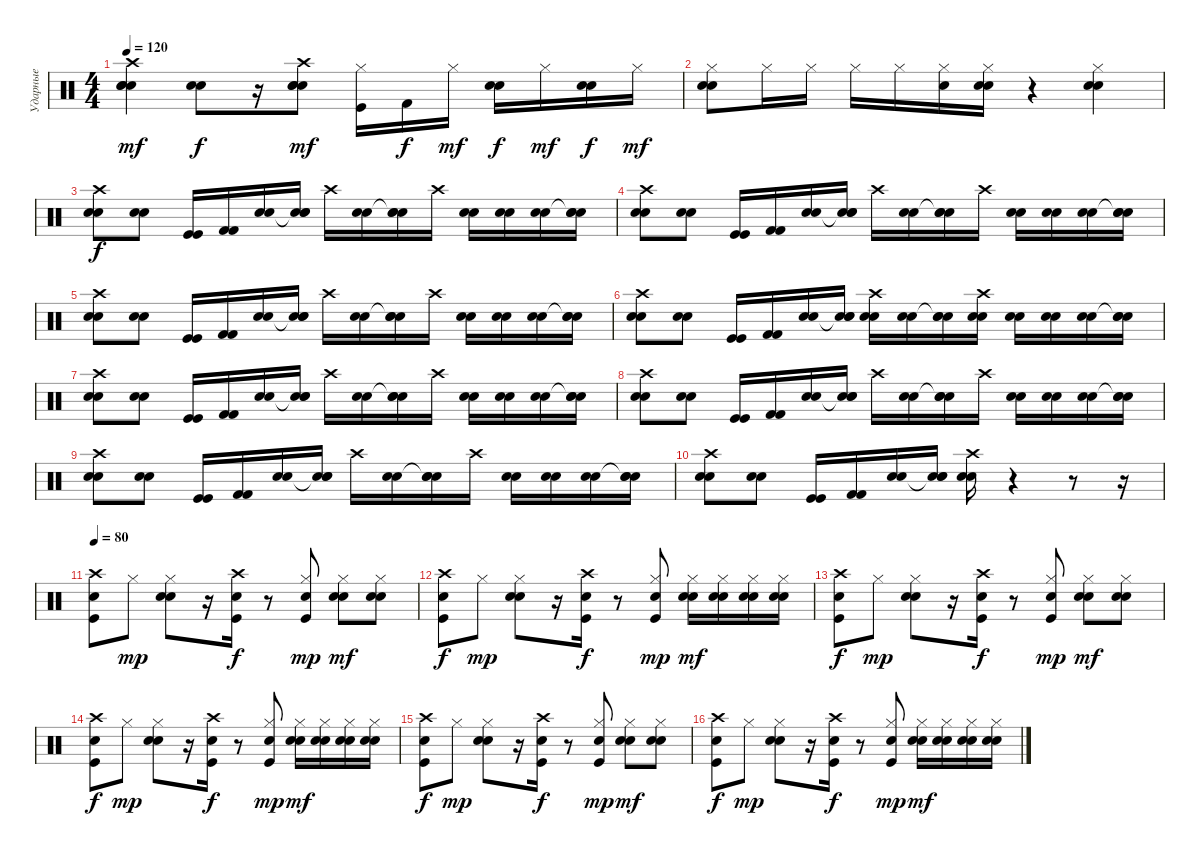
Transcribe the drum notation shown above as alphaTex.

\track ("Ударные" "Ударные") {instrument percussion}
\staff {score}
\articulation defaults
\ts (4 4)
\tempo 120
\clef neutral
\ks c
("Crash high (hit)" "Electric Snare (hit)" "Electric Snare (hit)" "Snare (hit) 2").4{dy mf} ("Electric Snare (hit)" "Electric Snare (hit)").8{dy f} r.16 ("Crash high (hit)" "Electric Snare (hit)" "Electric Snare (hit)" "Snare (hit) 2").8{dy mf} ("Hi-Hat (closed)" "Kick (hit)").16 "Kick (hit) 2".16{dy f} "Hi-Hat (closed)".16{dy mf} ("Electric Snare (hit)" "Electric Snare (hit)").16{dy f} "Hi-Hat (closed)".16{dy mf} ("Electric Snare (hit)" "Electric Snare (hit)").16{dy f} "Hi-Hat (closed)".16{dy mf} |
("Hi-Hat (closed)" "Electric Snare (hit)" "Electric Snare (hit)").8 "Hi-Hat (closed)".16 "Hi-Hat (closed)".16 "Hi-Hat (closed)".16 "Hi-Hat (closed)".16 ("Hi-Hat (closed)" "Electric Snare (hit)").16 ("Hi-Hat (closed)" "Electric Snare (hit)" "Electric Snare (hit)").16 r.4 ("Hi-Hat (closed)" "Electric Snare (hit)" "Electric Snare (hit)").4 |
("Crash high (hit)" "Electric Snare (hit)" "Electric Snare (hit)").8{dy f} ("Electric Snare (hit)" "Electric Snare (hit)").8 ("Kick (hit)" "Kick (hit)").16 ("Kick (hit) 2" "Kick (hit) 2").16 ("Electric Snare (hit)" "Electric Snare (hit)").16 ("Snare (hit)"{t} "Electric Snare (hit)" "Electric Snare (hit)").16 "Crash high (hit)".16 ("Electric Snare (hit)" "Electric Snare (hit)").16 ("Snare (hit)"{t} "Electric Snare (hit)" "Electric Snare (hit)").16 "Crash high (hit)".16 ("Electric Snare (hit)" "Electric Snare (hit)").16 ("Electric Snare (hit)" "Electric Snare (hit)").16 ("Electric Snare (hit)" "Electric Snare (hit)").16 ("Snare (hit)"{t} "Electric Snare (hit)" "Electric Snare (hit)").16 |
("Crash high (hit)" "Electric Snare (hit)" "Electric Snare (hit)").8 ("Electric Snare (hit)" "Electric Snare (hit)").8 ("Kick (hit)" "Kick (hit)").16 ("Kick (hit) 2" "Kick (hit) 2").16 ("Electric Snare (hit)" "Electric Snare (hit)").16 ("Snare (hit)"{t} "Electric Snare (hit)" "Electric Snare (hit)").16 "Crash high (hit)".16 ("Electric Snare (hit)" "Electric Snare (hit)").16 ("Snare (hit)"{t} "Electric Snare (hit)" "Electric Snare (hit)").16 "Crash high (hit)".16 ("Electric Snare (hit)" "Electric Snare (hit)").16 ("Electric Snare (hit)" "Electric Snare (hit)").16 ("Electric Snare (hit)" "Electric Snare (hit)").16 ("Snare (hit)"{t} "Electric Snare (hit)" "Electric Snare (hit)").16 |
("Crash high (hit)" "Electric Snare (hit)" "Electric Snare (hit)").8 ("Electric Snare (hit)" "Electric Snare (hit)").8 ("Kick (hit)" "Kick (hit)").16 ("Kick (hit) 2" "Kick (hit) 2").16 ("Electric Snare (hit)" "Electric Snare (hit)").16 ("Snare (hit)"{t} "Electric Snare (hit)" "Electric Snare (hit)").16 "Crash high (hit)".16 ("Electric Snare (hit)" "Electric Snare (hit)").16 ("Snare (hit)"{t} "Electric Snare (hit)" "Electric Snare (hit)").16 "Crash high (hit)".16 ("Electric Snare (hit)" "Electric Snare (hit)").16 ("Electric Snare (hit)" "Electric Snare (hit)").16 ("Electric Snare (hit)" "Electric Snare (hit)").16 ("Snare (hit)"{t} "Electric Snare (hit)" "Electric Snare (hit)").16 |
("Crash high (hit)" "Electric Snare (hit)" "Electric Snare (hit)").8 ("Electric Snare (hit)" "Electric Snare (hit)").8 ("Kick (hit)" "Kick (hit)").16 ("Kick (hit) 2" "Kick (hit) 2").16 ("Electric Snare (hit)" "Electric Snare (hit)").16 ("Snare (hit)"{t} "Electric Snare (hit)" "Electric Snare (hit)").16 ("Crash high (hit)" "Electric Snare (hit)" "Electric Snare (hit)").16 ("Electric Snare (hit)" "Electric Snare (hit)").16 ("Snare (hit)"{t} "Electric Snare (hit)" "Electric Snare (hit)").16 ("Crash high (hit)" "Electric Snare (hit)" "Electric Snare (hit)").16 ("Electric Snare (hit)" "Electric Snare (hit)").16 ("Electric Snare (hit)" "Electric Snare (hit)").16 ("Electric Snare (hit)" "Electric Snare (hit)").16 ("Snare (hit)"{t} "Electric Snare (hit)" "Electric Snare (hit)").16 |
("Crash high (hit)" "Electric Snare (hit)" "Electric Snare (hit)").8 ("Electric Snare (hit)" "Electric Snare (hit)").8 ("Kick (hit)" "Kick (hit)").16 ("Kick (hit) 2" "Kick (hit) 2").16 ("Electric Snare (hit)" "Electric Snare (hit)").16 ("Snare (hit)"{t} "Electric Snare (hit)" "Electric Snare (hit)").16 "Crash high (hit)".16 ("Electric Snare (hit)" "Electric Snare (hit)").16 ("Snare (hit)"{t} "Electric Snare (hit)" "Electric Snare (hit)").16 "Crash high (hit)".16 ("Electric Snare (hit)" "Electric Snare (hit)").16 ("Electric Snare (hit)" "Electric Snare (hit)").16 ("Electric Snare (hit)" "Electric Snare (hit)").16 ("Snare (hit)"{t} "Electric Snare (hit)" "Electric Snare (hit)").16 |
("Crash high (hit)" "Electric Snare (hit)" "Electric Snare (hit)").8 ("Electric Snare (hit)" "Electric Snare (hit)").8 ("Kick (hit)" "Kick (hit)").16 ("Kick (hit) 2" "Kick (hit) 2").16 ("Electric Snare (hit)" "Electric Snare (hit)").16 ("Snare (hit)"{t} "Electric Snare (hit)" "Electric Snare (hit)").16 "Crash high (hit)".16 ("Electric Snare (hit)" "Electric Snare (hit)").16 ("Snare (hit)"{t} "Electric Snare (hit)" "Electric Snare (hit)").16 "Crash high (hit)".16 ("Electric Snare (hit)" "Electric Snare (hit)").16 ("Electric Snare (hit)" "Electric Snare (hit)").16 ("Electric Snare (hit)" "Electric Snare (hit)").16 ("Snare (hit)"{t} "Electric Snare (hit)" "Electric Snare (hit)").16 |
("Crash high (hit)" "Electric Snare (hit)" "Electric Snare (hit)").8 ("Electric Snare (hit)" "Electric Snare (hit)").8 ("Kick (hit)" "Kick (hit)").16 ("Kick (hit) 2" "Kick (hit) 2").16 ("Electric Snare (hit)" "Electric Snare (hit)").16 ("Snare (hit)"{t} "Electric Snare (hit)" "Electric Snare (hit)").16 "Crash high (hit)".16 ("Electric Snare (hit)" "Electric Snare (hit)").16 ("Snare (hit)"{t} "Electric Snare (hit)" "Electric Snare (hit)").16 "Crash high (hit)".16 ("Electric Snare (hit)" "Electric Snare (hit)").16 ("Electric Snare (hit)" "Electric Snare (hit)").16 ("Electric Snare (hit)" "Electric Snare (hit)").16 ("Snare (hit)"{t} "Electric Snare (hit)" "Electric Snare (hit)").16 |
("Crash high (hit)" "Electric Snare (hit)" "Electric Snare (hit)").8 ("Electric Snare (hit)" "Electric Snare (hit)").8 ("Kick (hit)" "Kick (hit)").16 ("Kick (hit) 2" "Kick (hit) 2").16 ("Electric Snare (hit)" "Electric Snare (hit)").16 ("Snare (hit)"{t} "Electric Snare (hit)" "Electric Snare (hit)").16 ("Crash high (hit)" "Electric Snare (hit)" "Electric Snare (hit)").16 r.4 r.8 r.16 |
\tempo 80
("Crash high (hit)" "Kick (hit)" "Snare (hit) 2").8 "Hi-Hat (closed)".8{dy mp} ("Hi-Hat (closed)" "Electric Snare (hit)" "Electric Snare (hit)").8 r.16 ("Crash high (hit)" "Kick (hit)" "Snare (hit) 2").16{dy f} r.8 ("Hi-Hat (closed)" "Kick (hit)" "Snare (hit) 2").8{dy mp} ("Hi-Hat (closed)" "Electric Snare (hit)" "Electric Snare (hit)").8{dy mf} ("Hi-Hat (closed)" "Electric Snare (hit)" "Electric Snare (hit)").8 |
("Crash high (hit)" "Kick (hit)" "Snare (hit) 2").8{dy f} "Hi-Hat (closed)".8{dy mp} ("Hi-Hat (closed)" "Electric Snare (hit)" "Electric Snare (hit)").8 r.16 ("Crash high (hit)" "Kick (hit)" "Snare (hit) 2").16{dy f} r.8 ("Hi-Hat (closed)" "Kick (hit)" "Snare (hit) 2").8{dy mp} ("Hi-Hat (closed)" "Electric Snare (hit)" "Electric Snare (hit)").16{dy mf} ("Hi-Hat (closed)" "Electric Snare (hit)" "Electric Snare (hit)").16 ("Hi-Hat (closed)" "Electric Snare (hit)" "Electric Snare (hit)").16 ("Hi-Hat (closed)" "Electric Snare (hit)" "Electric Snare (hit)").16 |
("Crash high (hit)" "Kick (hit)" "Snare (hit) 2").8{dy f} "Hi-Hat (closed)".8{dy mp} ("Hi-Hat (closed)" "Electric Snare (hit)" "Electric Snare (hit)").8 r.16 ("Crash high (hit)" "Kick (hit)" "Snare (hit) 2").16{dy f} r.8 ("Hi-Hat (closed)" "Kick (hit)" "Snare (hit) 2").8{dy mp} ("Hi-Hat (closed)" "Electric Snare (hit)" "Electric Snare (hit)").8{dy mf} ("Hi-Hat (closed)" "Electric Snare (hit)" "Electric Snare (hit)").8 |
("Crash high (hit)" "Kick (hit)" "Snare (hit) 2").8{dy f} "Hi-Hat (closed)".8{dy mp} ("Hi-Hat (closed)" "Electric Snare (hit)" "Electric Snare (hit)").8 r.16 ("Crash high (hit)" "Kick (hit)" "Snare (hit) 2").16{dy f} r.8 ("Hi-Hat (closed)" "Kick (hit)" "Snare (hit) 2").8{dy mp} ("Hi-Hat (closed)" "Electric Snare (hit)" "Electric Snare (hit)").16{dy mf} ("Hi-Hat (closed)" "Electric Snare (hit)" "Electric Snare (hit)").16 ("Hi-Hat (closed)" "Electric Snare (hit)" "Electric Snare (hit)").16 ("Hi-Hat (closed)" "Electric Snare (hit)" "Electric Snare (hit)").16 |
("Crash high (hit)" "Kick (hit)" "Snare (hit) 2").8{dy f} "Hi-Hat (closed)".8{dy mp} ("Hi-Hat (closed)" "Electric Snare (hit)" "Electric Snare (hit)").8 r.16 ("Crash high (hit)" "Kick (hit)" "Snare (hit) 2").16{dy f} r.8 ("Hi-Hat (closed)" "Kick (hit)" "Snare (hit) 2").8{dy mp} ("Hi-Hat (closed)" "Electric Snare (hit)" "Electric Snare (hit)").8{dy mf} ("Hi-Hat (closed)" "Electric Snare (hit)" "Electric Snare (hit)").8 |
("Crash high (hit)" "Kick (hit)" "Snare (hit) 2").8{dy f} "Hi-Hat (closed)".8{dy mp} ("Hi-Hat (closed)" "Electric Snare (hit)" "Electric Snare (hit)").8 r.16 ("Crash high (hit)" "Kick (hit)" "Snare (hit) 2").16{dy f} r.8 ("Hi-Hat (closed)" "Kick (hit)" "Snare (hit) 2").8{dy mp} ("Hi-Hat (closed)" "Electric Snare (hit)" "Electric Snare (hit)").16{dy mf} ("Hi-Hat (closed)" "Electric Snare (hit)" "Electric Snare (hit)").16 ("Hi-Hat (closed)" "Electric Snare (hit)" "Electric Snare (hit)").16 ("Hi-Hat (closed)" "Electric Snare (hit)" "Electric Snare (hit)").16
